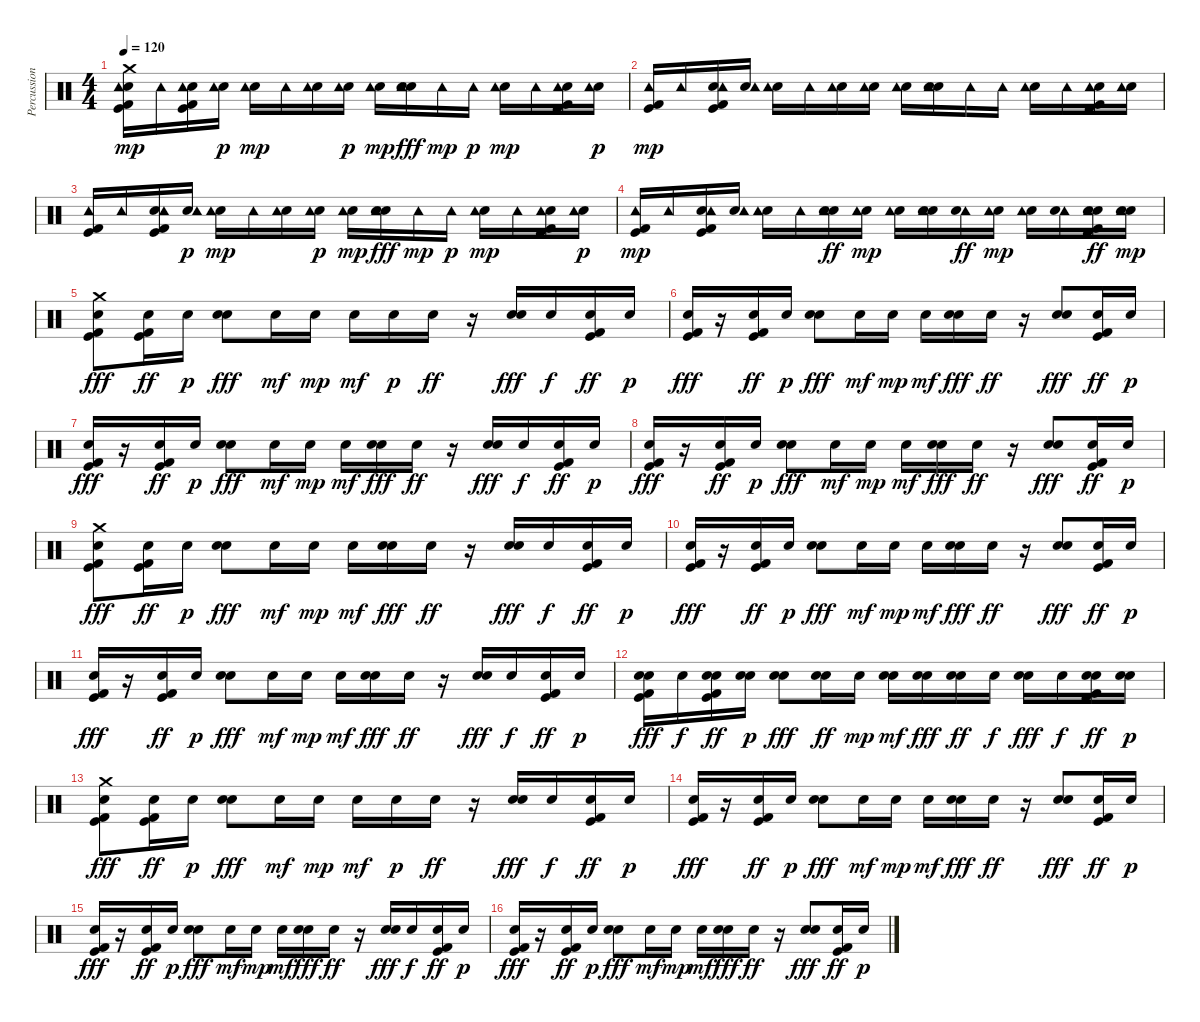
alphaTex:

\track ("Percussions" "Percussion") {instrument percussion}
\staff {score}
\articulation defaults
\ts (4 4)
\tempo 120
\clef neutral
\ks c
("Electric Snare (hit)" "Kick (hit) 2" "Kick (hit)" "Crash medium (hit)" "Tambourine (hit)").16{dy mp} "Tambourine (hit)".16 ("Electric Snare (hit)" "Kick (hit) 2" "Kick (hit)" "Tambourine (hit)").16 ("Electric Snare (hit)" "Tambourine (hit)").16{dy p} ("Snare (hit) 2" "Tambourine (hit)").16{dy mp} "Tambourine (hit)".16 ("Electric Snare (hit)" "Tambourine (hit)").16 ("Electric Snare (hit)" "Tambourine (hit)").16{dy p} ("Electric Snare (hit)" "Tambourine (hit)").16{dy mp} ("Electric Snare (hit)" "Tambourine (hit)" "Snare (hit) 2").16{dy fff} "Tambourine (hit)".16{dy mp} "Tambourine (hit)".16{dy p} ("Snare (hit) 2" "Tambourine (hit)").16{dy mp} "Tambourine (hit)".16 ("Electric Snare (hit)" "Kick (hit) 2" "Kick (hit)" "Tambourine (hit)").16 ("Electric Snare (hit)" "Tambourine (hit)").16{dy p} |
("Kick (hit) 2" "Kick (hit)" "Tambourine (hit)").16{dy mp} "Tambourine (hit)".16 ("Electric Snare (hit)" "Kick (hit) 2" "Kick (hit)" "Tambourine (hit)").16 ("Electric Snare (hit)" "Tambourine (hit)").16 ("Snare (hit) 2" "Tambourine (hit)").16 "Tambourine (hit)".16 ("Electric Snare (hit)" "Tambourine (hit)").16 ("Electric Snare (hit)" "Tambourine (hit)").16 ("Electric Snare (hit)" "Tambourine (hit)").16 ("Electric Snare (hit)" "Snare (hit) 2" "Tambourine (hit)").16 "Tambourine (hit)".16 "Tambourine (hit)".16 ("Snare (hit) 2" "Tambourine (hit)").16 "Tambourine (hit)".16 ("Electric Snare (hit)" "Kick (hit) 2" "Kick (hit)" "Tambourine (hit)").16 ("Electric Snare (hit)" "Tambourine (hit)").16 |
("Kick (hit) 2" "Kick (hit)" "Tambourine (hit)").16 "Tambourine (hit)".16 ("Electric Snare (hit)" "Kick (hit) 2" "Kick (hit)" "Tambourine (hit)").16 ("Electric Snare (hit)" "Tambourine (hit)").16{dy p} ("Snare (hit) 2" "Tambourine (hit)").16{dy mp} "Tambourine (hit)".16 ("Electric Snare (hit)" "Tambourine (hit)").16 ("Electric Snare (hit)" "Tambourine (hit)").16{dy p} ("Electric Snare (hit)" "Tambourine (hit)").16{dy mp} ("Electric Snare (hit)" "Tambourine (hit)" "Snare (hit) 2").16{dy fff} "Tambourine (hit)".16{dy mp} "Tambourine (hit)".16{dy p} ("Snare (hit) 2" "Tambourine (hit)").16{dy mp} "Tambourine (hit)".16 ("Electric Snare (hit)" "Kick (hit) 2" "Kick (hit)" "Tambourine (hit)").16 ("Electric Snare (hit)" "Tambourine (hit)").16{dy p} |
("Kick (hit) 2" "Kick (hit)" "Tambourine (hit)").16{dy mp} "Tambourine (hit)".16 ("Electric Snare (hit)" "Kick (hit) 2" "Kick (hit)" "Tambourine (hit)").16 ("Electric Snare (hit)" "Tambourine (hit)").16 ("Snare (hit) 2" "Tambourine (hit)").16 "Tambourine (hit)".16 ("Electric Snare (hit)" "Tambourine (hit)" "Snare (hit) 2").16{dy ff} ("Electric Snare (hit)" "Tambourine (hit)").16{dy mp} ("Electric Snare (hit)" "Tambourine (hit)").16 ("Electric Snare (hit)" "Snare (hit) 2" "Tambourine (hit)").16 ("Tambourine (hit)" "Snare (hit) 2").16{dy ff} ("Snare (hit) 2" "Tambourine (hit)").16{dy mp} ("Snare (hit) 2" "Tambourine (hit)").16 ("Tambourine (hit)" "Snare (hit) 2").16 ("Electric Snare (hit)" "Kick (hit) 2" "Kick (hit)" "Tambourine (hit)" "Snare (hit) 2").16{dy ff} ("Snare (hit) 2" "Electric Snare (hit)" "Tambourine (hit)").16{dy mp} |
("Electric Snare (hit)" "Kick (hit) 2" "Kick (hit)" "Crash medium (hit)").8{dy fff volume 14} ("Electric Snare (hit)" "Kick (hit) 2" "Kick (hit)").16{dy ff} "Electric Snare (hit)".16{dy p} ("Snare (hit) 2" "Electric Snare (hit)").8{dy fff} "Electric Snare (hit)".16{dy mf} "Electric Snare (hit)".16{dy mp} "Electric Snare (hit)".16{dy mf} "Electric Snare (hit)".16{dy p} "Electric Snare (hit)".16{dy ff} r.16 ("Snare (hit) 2" "Electric Snare (hit)").16{dy fff} "Electric Snare (hit)".16{dy f} ("Electric Snare (hit)" "Kick (hit) 2" "Kick (hit)").16{dy ff} "Electric Snare (hit)".16{dy p} |
("Electric Snare (hit)" "Kick (hit) 2" "Kick (hit)").16{dy fff} r.16 ("Electric Snare (hit)" "Kick (hit) 2" "Kick (hit)").16{dy ff} "Electric Snare (hit)".16{dy p} ("Snare (hit) 2" "Electric Snare (hit)").8{dy fff} "Electric Snare (hit)".16{dy mf} "Electric Snare (hit)".16{dy mp} "Electric Snare (hit)".16{dy mf} ("Electric Snare (hit)" "Snare (hit) 2").16{dy fff} "Electric Snare (hit)".16{dy ff} r.16 ("Electric Snare (hit)" "Snare (hit) 2").8{dy fff} ("Electric Snare (hit)" "Kick (hit) 2" "Kick (hit)").16{dy ff} "Electric Snare (hit)".16{dy p} |
("Electric Snare (hit)" "Kick (hit) 2" "Kick (hit)").16{dy fff} r.16 ("Electric Snare (hit)" "Kick (hit) 2" "Kick (hit)").16{dy ff} "Electric Snare (hit)".16{dy p} ("Snare (hit) 2" "Electric Snare (hit)").8{dy fff} "Electric Snare (hit)".16{dy mf} "Electric Snare (hit)".16{dy mp} "Electric Snare (hit)".16{dy mf} ("Electric Snare (hit)" "Snare (hit) 2").16{dy fff} "Electric Snare (hit)".16{dy ff} r.16 ("Snare (hit) 2" "Electric Snare (hit)").16{dy fff} "Electric Snare (hit)".16{dy f} ("Electric Snare (hit)" "Kick (hit) 2" "Kick (hit)").16{dy ff} "Electric Snare (hit)".16{dy p} |
("Electric Snare (hit)" "Kick (hit) 2" "Kick (hit)").16{dy fff} r.16 ("Electric Snare (hit)" "Kick (hit) 2" "Kick (hit)").16{dy ff} "Electric Snare (hit)".16{dy p} ("Snare (hit) 2" "Electric Snare (hit)").8{dy fff} "Electric Snare (hit)".16{dy mf} "Electric Snare (hit)".16{dy mp} "Electric Snare (hit)".16{dy mf} ("Electric Snare (hit)" "Snare (hit) 2").16{dy fff} "Electric Snare (hit)".16{dy ff} r.16 ("Electric Snare (hit)" "Snare (hit) 2").8{dy fff} ("Electric Snare (hit)" "Kick (hit) 2" "Kick (hit)").16{dy ff} "Electric Snare (hit)".16{dy p} |
("Electric Snare (hit)" "Kick (hit) 2" "Kick (hit)" "Crash medium (hit)").8{dy fff} ("Electric Snare (hit)" "Kick (hit) 2" "Kick (hit)").16{dy ff} "Electric Snare (hit)".16{dy p} ("Snare (hit) 2" "Electric Snare (hit)").8{dy fff} "Electric Snare (hit)".16{dy mf} "Electric Snare (hit)".16{dy mp} "Electric Snare (hit)".16{dy mf} ("Electric Snare (hit)" "Snare (hit) 2").16{dy fff} "Electric Snare (hit)".16{dy ff} r.16 ("Snare (hit) 2" "Electric Snare (hit)").16{dy fff} "Electric Snare (hit)".16{dy f} ("Electric Snare (hit)" "Kick (hit) 2" "Kick (hit)").16{dy ff} "Electric Snare (hit)".16{dy p} |
("Electric Snare (hit)" "Kick (hit) 2" "Kick (hit)").16{dy fff} r.16 ("Electric Snare (hit)" "Kick (hit) 2" "Kick (hit)").16{dy ff} "Electric Snare (hit)".16{dy p} ("Snare (hit) 2" "Electric Snare (hit)").8{dy fff} "Electric Snare (hit)".16{dy mf} "Electric Snare (hit)".16{dy mp} "Electric Snare (hit)".16{dy mf} ("Electric Snare (hit)" "Snare (hit) 2").16{dy fff} "Electric Snare (hit)".16{dy ff} r.16 ("Electric Snare (hit)" "Snare (hit) 2").8{dy fff} ("Electric Snare (hit)" "Kick (hit) 2" "Kick (hit)").16{dy ff} "Electric Snare (hit)".16{dy p} |
("Electric Snare (hit)" "Kick (hit) 2" "Kick (hit)").16{dy fff} r.16 ("Electric Snare (hit)" "Kick (hit) 2" "Kick (hit)").16{dy ff} "Electric Snare (hit)".16{dy p} ("Snare (hit) 2" "Electric Snare (hit)").8{dy fff} "Electric Snare (hit)".16{dy mf} "Electric Snare (hit)".16{dy mp} "Electric Snare (hit)".16{dy mf} ("Electric Snare (hit)" "Snare (hit) 2").16{dy fff} "Electric Snare (hit)".16{dy ff} r.16 ("Snare (hit) 2" "Electric Snare (hit)").16{dy fff} "Electric Snare (hit)".16{dy f} ("Electric Snare (hit)" "Kick (hit) 2" "Kick (hit)").16{dy ff} "Electric Snare (hit)".16{dy p} |
("Electric Snare (hit)" "Kick (hit) 2" "Kick (hit)" "Snare (hit) 2").16{dy fff} "Snare (hit) 2".16{dy f} ("Electric Snare (hit)" "Kick (hit) 2" "Kick (hit)" "Snare (hit) 2").16{dy ff} ("Snare (hit) 2" "Electric Snare (hit)").16{dy p} ("Snare (hit) 2" "Electric Snare (hit)").8{dy fff} ("Electric Snare (hit)" "Snare (hit) 2").16{dy ff} "Electric Snare (hit)".16{dy mp} ("Electric Snare (hit)" "Snare (hit) 2").16{dy mf} ("Electric Snare (hit)" "Snare (hit) 2").16{dy fff} ("Electric Snare (hit)" "Snare (hit) 2").16{dy ff} "Snare (hit) 2".16{dy f} ("Electric Snare (hit)" "Snare (hit) 2").16{dy fff} "Snare (hit) 2".16{dy f} ("Electric Snare (hit)" "Kick (hit) 2" "Kick (hit)" "Snare (hit) 2").16{dy ff} ("Electric Snare (hit)" "Snare (hit) 2").16{dy p} |
("Kick (hit) 2" "Electric Snare (hit)" "Kick (hit)" "Crash medium (hit)").8{dy fff} ("Kick (hit) 2" "Electric Snare (hit)" "Kick (hit)").16{dy ff} "Electric Snare (hit)".16{dy p} ("Snare (hit) 2" "Electric Snare (hit)").8{dy fff} "Electric Snare (hit)".16{dy mf} "Electric Snare (hit)".16{dy mp} "Electric Snare (hit)".16{dy mf} "Electric Snare (hit)".16{dy p} "Electric Snare (hit)".16{dy ff} r.16 ("Snare (hit) 2" "Electric Snare (hit)").16{dy fff} "Electric Snare (hit)".16{dy f} ("Kick (hit)" "Electric Snare (hit)" "Kick (hit) 2").16{dy ff} "Electric Snare (hit)".16{dy p} |
("Electric Snare (hit)" "Kick (hit) 2" "Kick (hit)").16{dy fff} r.16 ("Electric Snare (hit)" "Kick (hit) 2" "Kick (hit)").16{dy ff} "Electric Snare (hit)".16{dy p} ("Snare (hit) 2" "Electric Snare (hit)").8{dy fff} "Electric Snare (hit)".16{dy mf} "Electric Snare (hit)".16{dy mp} "Electric Snare (hit)".16{dy mf} ("Electric Snare (hit)" "Snare (hit) 2").16{dy fff} "Electric Snare (hit)".16{dy ff} r.16 ("Electric Snare (hit)" "Snare (hit) 2").8{dy fff} ("Electric Snare (hit)" "Kick (hit) 2" "Kick (hit)").16{dy ff} "Electric Snare (hit)".16{dy p} |
("Electric Snare (hit)" "Kick (hit) 2" "Kick (hit)").16{dy fff} r.16 ("Electric Snare (hit)" "Kick (hit) 2" "Kick (hit)").16{dy ff} "Electric Snare (hit)".16{dy p} ("Snare (hit) 2" "Electric Snare (hit)").8{dy fff} "Electric Snare (hit)".16{dy mf} "Electric Snare (hit)".16{dy mp} "Electric Snare (hit)".16{dy mf} ("Electric Snare (hit)" "Snare (hit) 2").16{dy fff} "Electric Snare (hit)".16{dy ff} r.16 ("Snare (hit) 2" "Electric Snare (hit)").16{dy fff} "Electric Snare (hit)".16{dy f} ("Kick (hit) 2" "Electric Snare (hit)" "Kick (hit)").16{dy ff} "Electric Snare (hit)".16{dy p} |
("Electric Snare (hit)" "Kick (hit) 2" "Kick (hit)").16{dy fff} r.16 ("Kick (hit) 2" "Electric Snare (hit)" "Kick (hit)").16{dy ff} "Electric Snare (hit)".16{dy p} ("Snare (hit) 2" "Electric Snare (hit)").8{dy fff} "Electric Snare (hit)".16{dy mf} "Electric Snare (hit)".16{dy mp} "Electric Snare (hit)".16{dy mf} ("Electric Snare (hit)" "Snare (hit) 2").16{dy fff} "Electric Snare (hit)".16{dy ff} r.16 ("Electric Snare (hit)" "Snare (hit) 2").8{dy fff} ("Electric Snare (hit)" "Kick (hit) 2" "Kick (hit)").16{dy ff} "Electric Snare (hit)".16{dy p}
